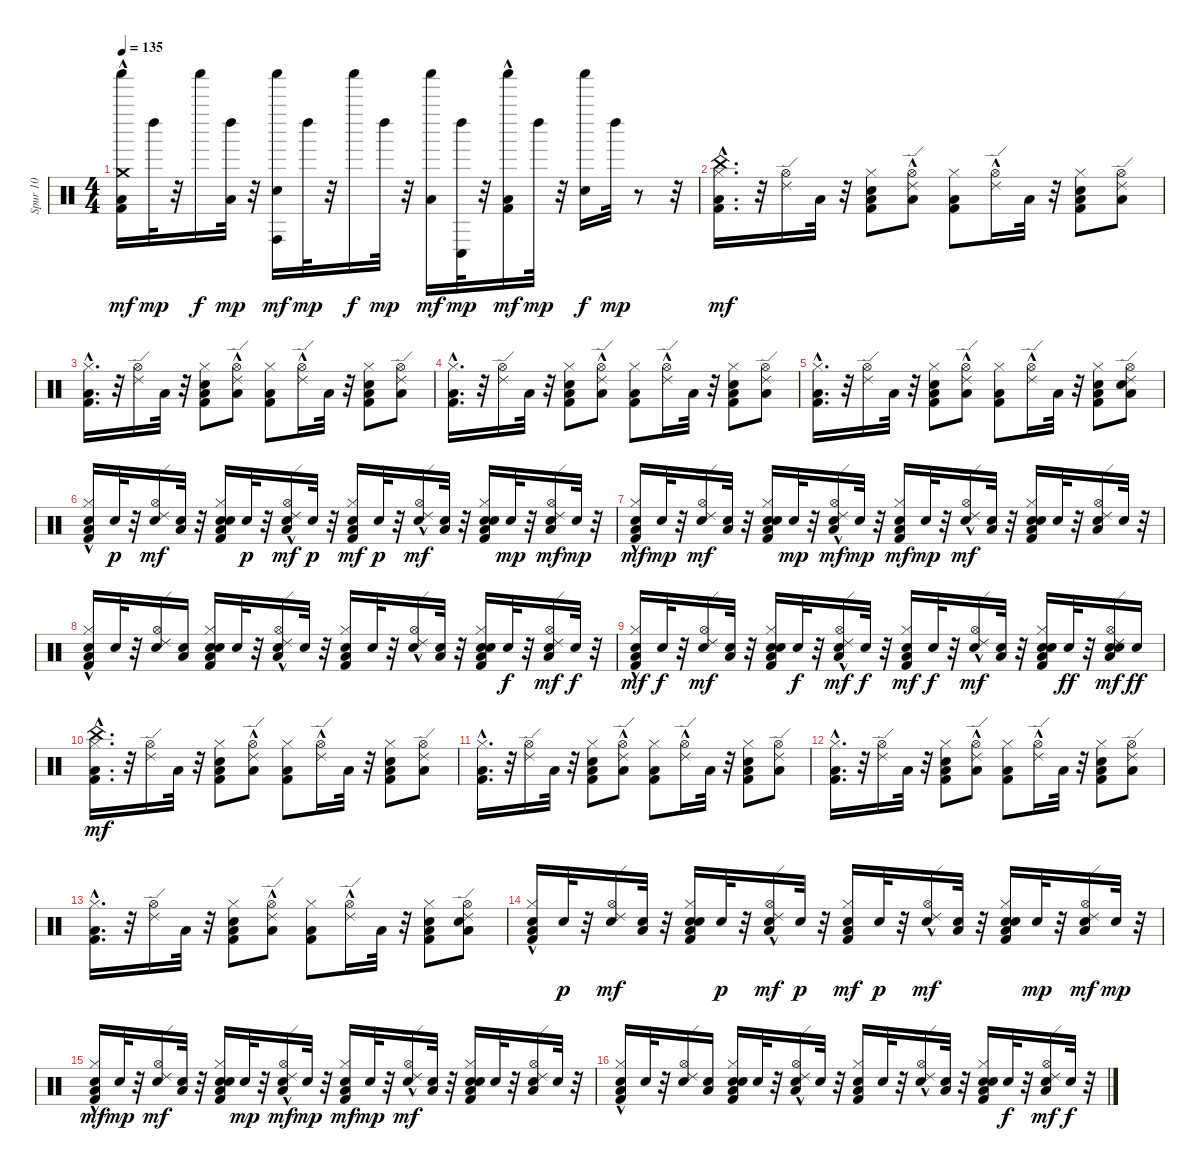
\track ("Spur 10" "Spur 10") {instrument percussion}
\staff {score}
\articulation defaults
\ts (4 4)
\tempo 135
\clef neutral
\ks c
("Kick (hit) 2"{hac} "Low Tom (hit)" "Crash medium (hit)" "Shaker (hit)").16{dy mf} "Left Maraca (hit)".32{dy mp} r.32 "Shaker (hit)".16{dy f} ("Low Tom (hit)" "Left Maraca (hit)").32{dy mp} r.32 ("Conga high (hit)" "Hand Clap (hit)" "Shaker (hit)").16{dy mf} "Left Maraca (hit)".32{dy mp} r.32 "Shaker (hit)".16{dy f} "Left Maraca (hit)".32{dy mp} r.32 ("Low Tom (hit)" "Shaker (hit)").16{dy mf} ("Conga low (hit)" "Left Maraca (hit)").32{dy mp} r.32 ("Kick (hit) 2"{hac} "Low Tom (hit)" "Shaker (hit)").16{dy mf} "Left Maraca (hit)".32{dy mp} r.32 ("Hand Clap (hit)" "Shaker (hit)").16{dy f} "Left Maraca (hit)".32{dy mp} r.8 r.32 |
("Kick (hit) 2" "Low Tom (hit)" "Hi-Hat (closed)"{hac} "China (hit)").16{d dy mf} r.32 ("Ride (edge) 2" "Hi-Hat (open)").16 "Low Tom (hit)".32 r.32 ("Kick (hit) 2" "Hand Clap (hit)" "Low Tom (hit)" "Hi-Hat (closed)").8 ("Low Tom (hit)" "Hi-Hat (open)" "Ride (edge) 2"{hac}).8 ("Kick (hit) 2" "Low Tom (hit)" "Hi-Hat (closed)").8 ("Hi-Hat (open)" "Ride (edge) 2"{hac}).16 "Low Tom (hit)".32 r.32 ("Kick (hit) 2" "Hand Clap (hit)" "Low Tom (hit)" "Hi-Hat (closed)").8 ("Low Tom (hit)" "Hi-Hat (open)" "Ride (edge) 2").8 |
("Kick (hit) 2" "Low Tom (hit)" "Hi-Hat (closed)"{hac}).16{d} r.32 ("Ride (edge) 2" "Hi-Hat (open)").16 "Low Tom (hit)".32 r.32 ("Kick (hit) 2" "Hand Clap (hit)" "Low Tom (hit)" "Hi-Hat (closed)").8 ("Low Tom (hit)" "Hi-Hat (open)" "Ride (edge) 2"{hac}).8 ("Kick (hit) 2" "Low Tom (hit)" "Hi-Hat (closed)").8 ("Hi-Hat (open)" "Ride (edge) 2"{hac}).16 "Low Tom (hit)".32 r.32 ("Kick (hit) 2" "Hand Clap (hit)" "Low Tom (hit)" "Hi-Hat (closed)").8 ("Low Tom (hit)" "Hi-Hat (open)" "Ride (edge) 2").8 |
("Kick (hit) 2" "Low Tom (hit)" "Hi-Hat (closed)"{hac}).16{d} r.32 ("Ride (edge) 2" "Hi-Hat (open)").16 "Low Tom (hit)".32 r.32 ("Kick (hit) 2" "Hand Clap (hit)" "Low Tom (hit)" "Hi-Hat (closed)").8 ("Low Tom (hit)" "Hi-Hat (open)" "Ride (edge) 2"{hac}).8 ("Kick (hit) 2" "Low Tom (hit)" "Hi-Hat (closed)").8 ("Hi-Hat (open)" "Ride (edge) 2"{hac}).16 "Low Tom (hit)".32 r.32 ("Kick (hit) 2" "Hand Clap (hit)" "Low Tom (hit)" "Hi-Hat (closed)").8 ("Low Tom (hit)" "Hi-Hat (open)" "Ride (edge) 2").8 |
("Kick (hit) 2" "Low Tom (hit)" "Hi-Hat (closed)"{hac}).16{d} r.32 ("Ride (edge) 2" "Hi-Hat (open)").16 "Low Tom (hit)".32 r.32 ("Kick (hit) 2" "Hand Clap (hit)" "Low Tom (hit)" "Hi-Hat (closed)").8 ("Low Tom (hit)" "Hi-Hat (open)" "Ride (edge) 2"{hac}).8 ("Kick (hit) 2" "Low Tom (hit)" "Hi-Hat (closed)").8 ("Hi-Hat (open)" "Ride (edge) 2"{hac}).16 "Low Tom (hit)".32 r.32 ("Kick (hit) 2" "Hand Clap (hit)" "Low Tom (hit)" "Hi-Hat (closed)").8 ("Hand Clap (hit)" "Low Tom (hit)" "Hi-Hat (open)" "Ride (edge) 2").8 |
("Snare (hit) 2" "Kick (hit) 2" "Low Tom (hit)" "Hi-Hat (closed)"{hac}).16 "Snare (hit) 2".32{dy p} r.32 ("Snare (hit) 2" "Ride (edge) 2" "Hi-Hat (open)").16{dy mf} ("Snare (hit) 2" "Low Tom (hit)").32 r.32 ("Snare (hit) 2" "Kick (hit) 2" "Hand Clap (hit)" "Low Tom (hit)" "Hi-Hat (closed)").16 "Snare (hit) 2".32{dy p} r.32 ("Snare (hit) 2" "Low Tom (hit)" "Hi-Hat (open)" "Ride (edge) 2"{hac}).16{dy mf} "Snare (hit) 2".32{dy p} r.32 ("Snare (hit) 2" "Kick (hit) 2" "Low Tom (hit)" "Hi-Hat (closed)").16{dy mf} "Snare (hit) 2".32{dy p} r.32 ("Snare (hit) 2" "Hi-Hat (open)" "Ride (edge) 2"{hac}).16{dy mf} ("Snare (hit) 2" "Low Tom (hit)").32 r.32 ("Snare (hit) 2" "Kick (hit) 2" "Hand Clap (hit)" "Low Tom (hit)" "Hi-Hat (closed)").16 "Snare (hit) 2".32{dy mp} r.32 ("Snare (hit) 2" "Low Tom (hit)" "Hi-Hat (open)" "Ride (edge) 2").16{dy mf} "Snare (hit) 2".32{dy mp} r.32 |
("Snare (hit) 2" "Kick (hit) 2" "Low Tom (hit)" "Hi-Hat (closed)"{hac}).16{dy mf} "Snare (hit) 2".32{dy mp} r.32 ("Snare (hit) 2" "Ride (edge) 2" "Hi-Hat (open)").16{dy mf} ("Snare (hit) 2" "Low Tom (hit)").32 r.32 ("Snare (hit) 2" "Kick (hit) 2" "Hand Clap (hit)" "Low Tom (hit)" "Hi-Hat (closed)").16 "Snare (hit) 2".32{dy mp} r.32 ("Snare (hit) 2" "Low Tom (hit)" "Hi-Hat (open)" "Ride (edge) 2"{hac}).16{dy mf} "Snare (hit) 2".32{dy mp} r.32 ("Snare (hit) 2" "Kick (hit) 2" "Low Tom (hit)" "Hi-Hat (closed)").16{dy mf} "Snare (hit) 2".32{dy mp} r.32 ("Snare (hit) 2" "Hi-Hat (open)" "Ride (edge) 2"{hac}).16{dy mf} ("Snare (hit) 2" "Low Tom (hit)").32 r.32 ("Snare (hit) 2" "Kick (hit) 2" "Hand Clap (hit)" "Low Tom (hit)" "Hi-Hat (closed)").16 "Snare (hit) 2".32 r.32 ("Snare (hit) 2" "Low Tom (hit)" "Hi-Hat (open)" "Ride (edge) 2").16 "Snare (hit) 2".32 r.32 |
("Snare (hit) 2" "Kick (hit) 2" "Low Tom (hit)" "Hi-Hat (closed)"{hac}).16 "Snare (hit) 2".32 r.32 ("Snare (hit) 2" "Ride (edge) 2" "Hi-Hat (open)").16 ("Snare (hit) 2" "Low Tom (hit)").16 ("Snare (hit) 2" "Kick (hit) 2" "Hand Clap (hit)" "Low Tom (hit)" "Hi-Hat (closed)").16 "Snare (hit) 2".32 r.32 ("Snare (hit) 2" "Low Tom (hit)" "Hi-Hat (open)" "Ride (edge) 2"{hac}).16 "Snare (hit) 2".32 r.32 ("Snare (hit) 2" "Kick (hit) 2" "Low Tom (hit)" "Hi-Hat (closed)").16 "Snare (hit) 2".32 r.32 ("Snare (hit) 2" "Hi-Hat (open)" "Ride (edge) 2"{hac}).16 ("Snare (hit) 2" "Low Tom (hit)").32 r.32 ("Snare (hit) 2" "Kick (hit) 2" "Hand Clap (hit)" "Low Tom (hit)" "Hi-Hat (closed)").16 "Snare (hit) 2".32{dy f} r.32 ("Snare (hit) 2" "Low Tom (hit)" "Hi-Hat (open)" "Ride (edge) 2").16{dy mf} "Snare (hit) 2".32{dy f} r.32 |
("Snare (hit) 2" "Kick (hit) 2" "Low Tom (hit)" "Hi-Hat (closed)"{hac}).16{dy mf} "Snare (hit) 2".32{dy f} r.32 ("Snare (hit) 2" "Ride (edge) 2" "Hi-Hat (open)").16{dy mf} ("Snare (hit) 2" "Low Tom (hit)").32 r.32 ("Snare (hit) 2" "Kick (hit) 2" "Hand Clap (hit)" "Low Tom (hit)" "Hi-Hat (closed)").16 "Snare (hit) 2".32{dy f} r.32 ("Snare (hit) 2" "Low Tom (hit)" "Hi-Hat (open)" "Ride (edge) 2"{hac}).16{dy mf} "Snare (hit) 2".32{dy f} r.32 ("Snare (hit) 2" "Kick (hit) 2" "Low Tom (hit)" "Hi-Hat (closed)").16{dy mf} "Snare (hit) 2".32{dy f} r.32 ("Snare (hit) 2" "Hi-Hat (open)" "Ride (edge) 2"{hac}).16{dy mf} ("Snare (hit) 2" "Low Tom (hit)").32 r.32 ("Snare (hit) 2" "Kick (hit) 2" "Hand Clap (hit)" "Low Tom (hit)" "Hi-Hat (closed)").16 "Snare (hit) 2".32{dy ff} r.32 ("Snare (hit) 2" "Hand Clap (hit)" "Low Tom (hit)" "Hi-Hat (open)" "Ride (edge) 2").16{dy mf} "Snare (hit) 2".16{dy ff} |
("Kick (hit) 2" "Low Tom (hit)" "Hi-Hat (closed)"{hac} "China (hit)").16{d dy mf} r.32 ("Ride (edge) 2" "Hi-Hat (open)").16 "Low Tom (hit)".32 r.32 ("Kick (hit) 2" "Hand Clap (hit)" "Low Tom (hit)" "Hi-Hat (closed)").8 ("Low Tom (hit)" "Hi-Hat (open)" "Ride (edge) 2"{hac}).8 ("Kick (hit) 2" "Low Tom (hit)" "Hi-Hat (closed)").8 ("Hi-Hat (open)" "Ride (edge) 2"{hac}).16 "Low Tom (hit)".32 r.32 ("Kick (hit) 2" "Hand Clap (hit)" "Low Tom (hit)" "Hi-Hat (closed)").8 ("Low Tom (hit)" "Hi-Hat (open)" "Ride (edge) 2").8 |
("Kick (hit) 2" "Low Tom (hit)" "Hi-Hat (closed)"{hac}).16{d} r.32 ("Ride (edge) 2" "Hi-Hat (open)").16 "Low Tom (hit)".32 r.32 ("Kick (hit) 2" "Hand Clap (hit)" "Low Tom (hit)" "Hi-Hat (closed)").8 ("Low Tom (hit)" "Hi-Hat (open)" "Ride (edge) 2"{hac}).8 ("Kick (hit) 2" "Low Tom (hit)" "Hi-Hat (closed)").8 ("Hi-Hat (open)" "Ride (edge) 2"{hac}).16 "Low Tom (hit)".32 r.32 ("Kick (hit) 2" "Hand Clap (hit)" "Low Tom (hit)" "Hi-Hat (closed)").8 ("Low Tom (hit)" "Hi-Hat (open)" "Ride (edge) 2").8 |
("Kick (hit) 2" "Low Tom (hit)" "Hi-Hat (closed)"{hac}).16{d} r.32 ("Ride (edge) 2" "Hi-Hat (open)").16 "Low Tom (hit)".32 r.32 ("Kick (hit) 2" "Hand Clap (hit)" "Low Tom (hit)" "Hi-Hat (closed)").8 ("Low Tom (hit)" "Hi-Hat (open)" "Ride (edge) 2"{hac}).8 ("Kick (hit) 2" "Low Tom (hit)" "Hi-Hat (closed)").8 ("Hi-Hat (open)" "Ride (edge) 2"{hac}).16 "Low Tom (hit)".32 r.32 ("Kick (hit) 2" "Hand Clap (hit)" "Low Tom (hit)" "Hi-Hat (closed)").8 ("Low Tom (hit)" "Hi-Hat (open)" "Ride (edge) 2").8 |
("Kick (hit) 2" "Low Tom (hit)" "Hi-Hat (closed)"{hac}).16{d} r.32 ("Ride (edge) 2" "Hi-Hat (open)").16 "Low Tom (hit)".32 r.32 ("Kick (hit) 2" "Hand Clap (hit)" "Low Tom (hit)" "Hi-Hat (closed)").8 ("Low Tom (hit)" "Hi-Hat (open)" "Ride (edge) 2"{hac}).8 ("Kick (hit) 2" "Low Tom (hit)" "Hi-Hat (closed)").8 ("Hi-Hat (open)" "Ride (edge) 2"{hac}).16 "Low Tom (hit)".32 r.32 ("Kick (hit) 2" "Hand Clap (hit)" "Low Tom (hit)" "Hi-Hat (closed)").8 ("Hand Clap (hit)" "Low Tom (hit)" "Hi-Hat (open)" "Ride (edge) 2").8 |
("Snare (hit) 2" "Kick (hit) 2" "Low Tom (hit)" "Hi-Hat (closed)"{hac}).16 "Snare (hit) 2".32{dy p} r.32 ("Snare (hit) 2" "Ride (edge) 2" "Hi-Hat (open)").16{dy mf} ("Snare (hit) 2" "Low Tom (hit)").32 r.32 ("Snare (hit) 2" "Kick (hit) 2" "Hand Clap (hit)" "Low Tom (hit)" "Hi-Hat (closed)").16 "Snare (hit) 2".32{dy p} r.32 ("Snare (hit) 2" "Low Tom (hit)" "Hi-Hat (open)" "Ride (edge) 2"{hac}).16{dy mf} "Snare (hit) 2".32{dy p} r.32 ("Snare (hit) 2" "Kick (hit) 2" "Low Tom (hit)" "Hi-Hat (closed)").16{dy mf} "Snare (hit) 2".32{dy p} r.32 ("Snare (hit) 2" "Hi-Hat (open)" "Ride (edge) 2"{hac}).16{dy mf} ("Snare (hit) 2" "Low Tom (hit)").32 r.32 ("Snare (hit) 2" "Kick (hit) 2" "Hand Clap (hit)" "Low Tom (hit)" "Hi-Hat (closed)").16 "Snare (hit) 2".32{dy mp} r.32 ("Snare (hit) 2" "Low Tom (hit)" "Hi-Hat (open)" "Ride (edge) 2").16{dy mf} "Snare (hit) 2".32{dy mp} r.32 |
("Snare (hit) 2" "Kick (hit) 2" "Low Tom (hit)" "Hi-Hat (closed)"{hac}).16{dy mf} "Snare (hit) 2".32{dy mp} r.32 ("Snare (hit) 2" "Ride (edge) 2" "Hi-Hat (open)").16{dy mf} ("Snare (hit) 2" "Low Tom (hit)").32 r.32 ("Snare (hit) 2" "Kick (hit) 2" "Hand Clap (hit)" "Low Tom (hit)" "Hi-Hat (closed)").16 "Snare (hit) 2".32{dy mp} r.32 ("Snare (hit) 2" "Low Tom (hit)" "Hi-Hat (open)" "Ride (edge) 2"{hac}).16{dy mf} "Snare (hit) 2".32{dy mp} r.32 ("Snare (hit) 2" "Kick (hit) 2" "Low Tom (hit)" "Hi-Hat (closed)").16{dy mf} "Snare (hit) 2".32{dy mp} r.32 ("Snare (hit) 2" "Hi-Hat (open)" "Ride (edge) 2"{hac}).16{dy mf} ("Snare (hit) 2" "Low Tom (hit)").32 r.32 ("Snare (hit) 2" "Kick (hit) 2" "Hand Clap (hit)" "Low Tom (hit)" "Hi-Hat (closed)").16 "Snare (hit) 2".32 r.32 ("Snare (hit) 2" "Low Tom (hit)" "Hi-Hat (open)" "Ride (edge) 2").16 "Snare (hit) 2".32 r.32 |
("Snare (hit) 2" "Kick (hit) 2" "Low Tom (hit)" "Hi-Hat (closed)"{hac}).16 "Snare (hit) 2".32 r.32 ("Snare (hit) 2" "Ride (edge) 2" "Hi-Hat (open)").16 ("Snare (hit) 2" "Low Tom (hit)").16 ("Snare (hit) 2" "Kick (hit) 2" "Hand Clap (hit)" "Low Tom (hit)" "Hi-Hat (closed)").16 "Snare (hit) 2".32 r.32 ("Snare (hit) 2" "Low Tom (hit)" "Hi-Hat (open)" "Ride (edge) 2"{hac}).16 "Snare (hit) 2".32 r.32 ("Snare (hit) 2" "Kick (hit) 2" "Low Tom (hit)" "Hi-Hat (closed)").16 "Snare (hit) 2".32 r.32 ("Snare (hit) 2" "Hi-Hat (open)" "Ride (edge) 2"{hac}).16 ("Snare (hit) 2" "Low Tom (hit)").32 r.32 ("Snare (hit) 2" "Kick (hit) 2" "Hand Clap (hit)" "Low Tom (hit)" "Hi-Hat (closed)").16 "Snare (hit) 2".32{dy f} r.32 ("Snare (hit) 2" "Low Tom (hit)" "Hi-Hat (open)" "Ride (edge) 2").16{dy mf} "Snare (hit) 2".32{dy f} r.32
